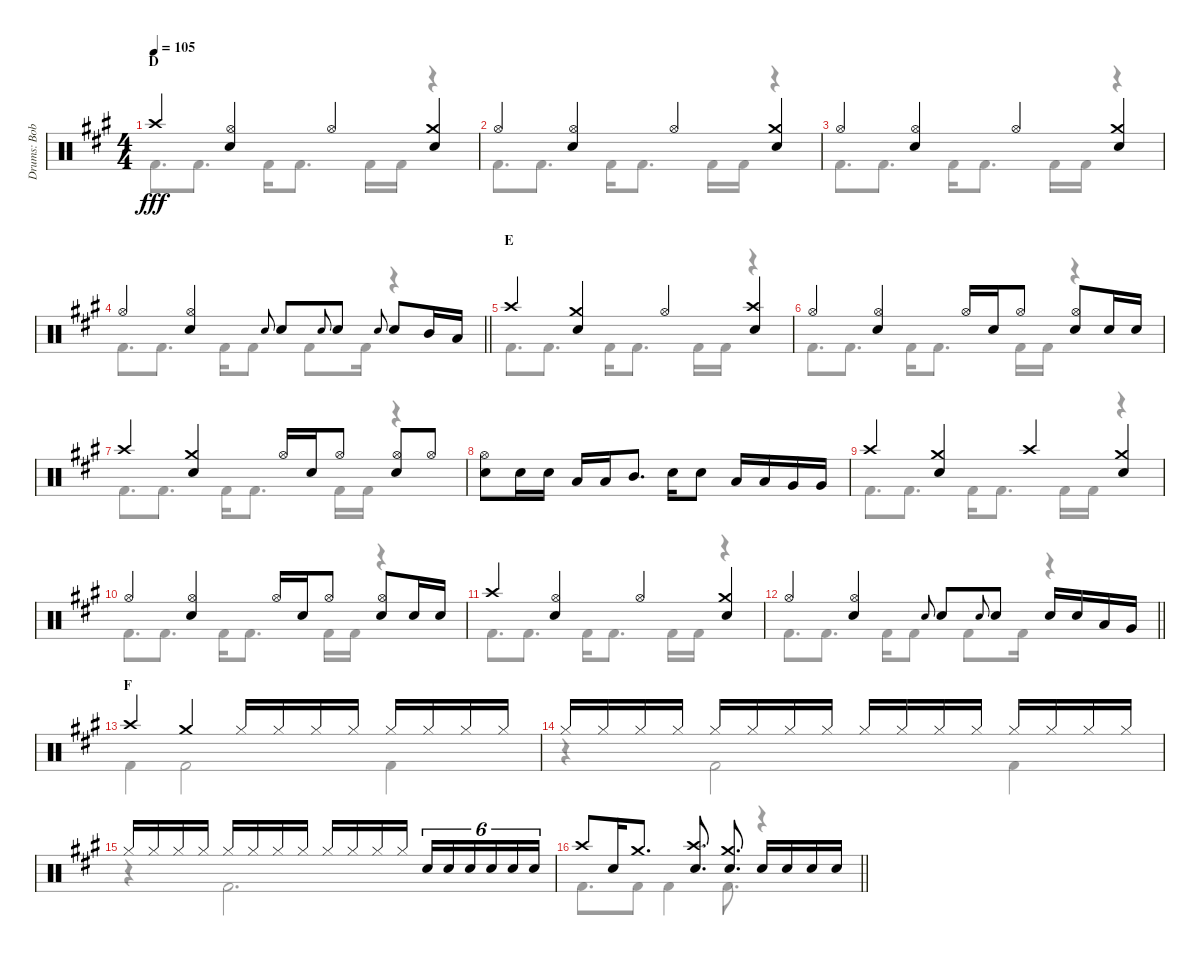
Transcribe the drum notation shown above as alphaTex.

\track ("Drums: Bobby" "Drums: Bob") {instrument percussion}
\staff {score}
\articulation defaults
\voice
\ts (4 4)
\section ("" "D")
\tempo 105
\clef neutral
\ks a "Crash high (hit)".4{dy fff}
("Hi-Hat (open)" "Snare (hit) 2").4 "Hi-Hat (open)".4 ("Crash medium (hit)" "Snare (hit) 2").4 |
"Hi-Hat (open)".4 ("Hi-Hat (open)" "Snare (hit) 2").4 "Hi-Hat (open)".4 ("Crash medium (hit)" "Snare (hit) 2").4 |
"Hi-Hat (open)".4 ("Hi-Hat (open)" "Snare (hit) 2").4 "Hi-Hat (open)".4 ("Crash medium (hit)" "Snare (hit) 2").4 |
\barLineRight lightlight "Hi-Hat (open)".4
("Hi-Hat (open)" "Snare (hit) 2").4 "Electric Snare (hit)".8{gr onbeat} "Snare (hit) 2".8 "Electric Snare (hit)".8{gr onbeat} "Snare (hit) 2".8 "Electric Snare (hit)".8{gr onbeat} "Snare (hit) 2".8 "Mid Tom (hit)".16 "Low Tom (hit)".16 |
\section ("" "E")
"Crash high (hit)".4 ("Crash medium (hit)" "Snare (hit) 2").4 "Hi-Hat (open)".4 ("Crash high (hit)" "Snare (hit) 2").4 |
"Hi-Hat (open)".4 ("Hi-Hat (open)" "Snare (hit) 2").4 "Hi-Hat (open)".16 "Snare (hit) 2".16 "Hi-Hat (open)".8 ("Hi-Hat (open)" "Snare (hit) 2").8 "Electric Snare (hit)".16 "Electric Snare (hit)".16 |
"Crash high (hit)".4 ("Crash medium (hit)" "Snare (hit) 2").4 "Hi-Hat (open)".16 "Snare (hit) 2".16 "Hi-Hat (open)".8 ("Hi-Hat (open)" "Snare (hit) 2").8 "Hi-Hat (open)".8 |
("Hi-Hat (open)" "Snare (hit) 2").8 "Electric Snare (hit)".16 "Electric Snare (hit)".16 "Low Tom (hit)".16 "Low Tom (hit)".16 "Mid Tom (hit)".8{d} "Electric Snare (hit)".16 "Electric Snare (hit)".8 "Low Tom (hit)".16 "Low Tom (hit)".16 "Very Low Tom (hit)".16 "Very Low Tom (hit)".16 |
"Crash high (hit)".4 ("Crash medium (hit)" "Snare (hit) 2").4 "Crash high (hit)".4 ("Crash medium (hit)" "Snare (hit) 2").4 |
"Hi-Hat (open)".4 ("Hi-Hat (open)" "Snare (hit) 2").4 "Hi-Hat (open)".16 "Snare (hit) 2".16 "Hi-Hat (open)".8 ("Hi-Hat (open)" "Snare (hit) 2").8 "Electric Snare (hit)".16 "Electric Snare (hit)".16 |
"Crash high (hit)".4 ("Hi-Hat (open)" "Snare (hit) 2").4 "Hi-Hat (open)".4 ("Crash medium (hit)" "Snare (hit) 2").4 |
\barLineRight lightlight "Hi-Hat (open)".4
("Hi-Hat (open)" "Snare (hit) 2").4 "Electric Snare (hit)".8{gr onbeat} "Snare (hit) 2".8 "Electric Snare (hit)".8{gr onbeat} "Snare (hit) 2".8 "Electric Snare (hit)".16 "Electric Snare (hit)".16 "Low Tom (hit)".16 "Very Low Tom (hit)".16 |
\section ("" "F")
"Crash high (hit)".4 "Crash medium (hit)".4 "Hi-Hat (closed)".16 "Hi-Hat (closed)".16 "Hi-Hat (closed)".16 "Hi-Hat (closed)".16 "Hi-Hat (closed)".16 "Hi-Hat (closed)".16 "Hi-Hat (closed)".16 "Hi-Hat (closed)".16 |
"Hi-Hat (closed)".16 "Hi-Hat (closed)".16 "Hi-Hat (closed)".16 "Hi-Hat (closed)".16 "Hi-Hat (closed)".16 "Hi-Hat (closed)".16 "Hi-Hat (closed)".16 "Hi-Hat (closed)".16 "Hi-Hat (closed)".16 "Hi-Hat (closed)".16 "Hi-Hat (closed)".16 "Hi-Hat (closed)".16 "Hi-Hat (closed)".16 "Hi-Hat (closed)".16 "Hi-Hat (closed)".16 "Hi-Hat (closed)".16 |
"Hi-Hat (closed)".16 "Hi-Hat (closed)".16 "Hi-Hat (closed)".16 "Hi-Hat (closed)".16 "Hi-Hat (closed)".16 "Hi-Hat (closed)".16 "Hi-Hat (closed)".16 "Hi-Hat (closed)".16 "Hi-Hat (closed)".16 "Hi-Hat (closed)".16 "Hi-Hat (closed)".16 "Hi-Hat (closed)".16 "Snare (hit) 2".16{tu (6 4)} "Snare (hit) 2".16{tu (6 4)} "Snare (hit) 2".16{tu (6 4)} "Snare (hit) 2".16{tu (6 4)} "Snare (hit) 2".16{tu (6 4)} "Snare (hit) 2".16{tu (6 4)} |
\barLineRight lightlight "Crash high (hit)".8 "Snare (hit) 2".16 "Crash medium (hit)".8{d}
("Crash high (hit)" "Snare (hit) 2").8{d} ("Crash medium (hit)" "Snare (hit) 2").8{d} "Electric Snare (hit)".16 "Electric Snare (hit)".16 "Electric Snare (hit)".16 "Electric Snare (hit)".16
\voice
\clef neutral
\ottava regular
\simile none
\ks a "Kick (hit) 2".8{d dy fff} "Kick (hit) 2".8{d} "Kick (hit) 2".16 "Kick (hit) 2".8{d} "Kick (hit) 2".16 "Kick (hit) 2".16
r.4 |
"Kick (hit) 2".8{d} "Kick (hit) 2".8{d} "Kick (hit) 2".16 "Kick (hit) 2".8{d} "Kick (hit) 2".16 "Kick (hit) 2".16 r.4 |
"Kick (hit) 2".8{d} "Kick (hit) 2".8{d} "Kick (hit) 2".16 "Kick (hit) 2".8{d} "Kick (hit) 2".16 "Kick (hit) 2".16 r.4 |
\barLineRight lightlight "Kick (hit) 2".8{d} "Kick (hit) 2".8{d} "Kick (hit) 2".16 "Kick (hit) 2".8 "Kick (hit) 2".8 "Kick (hit) 2".16
r.4 |
"Kick (hit) 2".8{d} "Kick (hit) 2".8{d} "Kick (hit) 2".16 "Kick (hit) 2".8{d} "Kick (hit) 2".16 "Kick (hit) 2".16 r.4 |
"Kick (hit) 2".8{d} "Kick (hit) 2".8{d} "Kick (hit) 2".16 "Kick (hit) 2".8{d} "Kick (hit) 2".16 "Kick (hit) 2".16 r.4 |
"Kick (hit) 2".8{d} "Kick (hit) 2".8{d} "Kick (hit) 2".16 "Kick (hit) 2".8{d} "Kick (hit) 2".16 "Kick (hit) 2".16 r.4 |
|
"Kick (hit) 2".8{d} "Kick (hit) 2".8{d} "Kick (hit) 2".16 "Kick (hit) 2".8{d} "Kick (hit) 2".16 "Kick (hit) 2".16 r.4 |
"Kick (hit) 2".8{d} "Kick (hit) 2".8{d} "Kick (hit) 2".16 "Kick (hit) 2".8{d} "Kick (hit) 2".16 "Kick (hit) 2".16 r.4 |
"Kick (hit) 2".8{d} "Kick (hit) 2".8{d} "Kick (hit) 2".16 "Kick (hit) 2".8{d} "Kick (hit) 2".16 "Kick (hit) 2".16 r.4 |
\barLineRight lightlight "Kick (hit) 2".8{d} "Kick (hit) 2".8{d} "Kick (hit) 2".16 "Kick (hit) 2".8 "Kick (hit) 2".8 "Kick (hit) 2".16
r.4 |
"Kick (hit) 2".4 "Kick (hit) 2".2 "Kick (hit) 2".4 |
r.4 "Kick (hit) 2".2 "Kick (hit) 2".4 |
r.4 "Kick (hit) 2".2{d} |
\barLineRight lightlight "Kick (hit) 2".8{d} "Kick (hit) 2".8 "Kick (hit) 2".4 "Kick (hit) 2".8{d}
r.4
